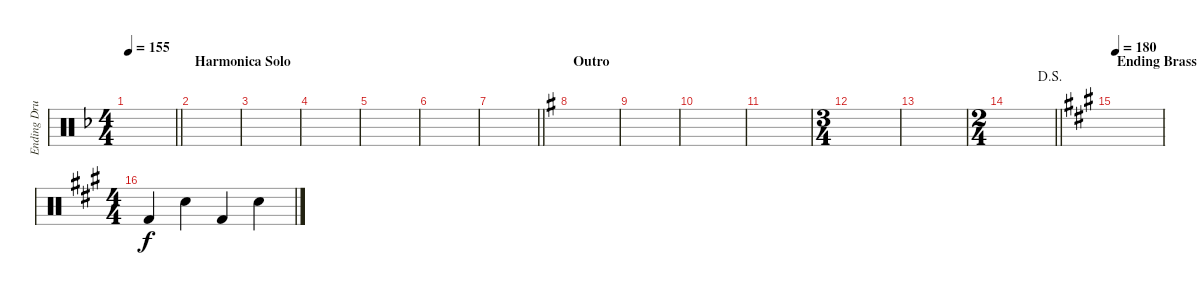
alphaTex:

\track ("Ending Drums" "Ending Dru") {instrument percussion}
\staff {score}
\articulation defaults
\ts (4 4)
\tempo 155
\clef neutral
\barLineRight lightlight
\ks dminor
|
\section ("" "Harmonica Solo")
|
|
|
|
|
\barLineRight lightlight
|
\section ("" "Outro")
\ks g
|
|
|
|
\ts (3 4)
|
|
\ts (2 4)
\jump dalsegno
\barLineRight lightlight
|
\section ("" "Ending Brass")
\tempo 180
\ks a
|
\ts (4 4)
"Kick (hit) 2".4 "Electric Snare (hit)".4 "Kick (hit) 2".4 "Electric Snare (hit)".4
